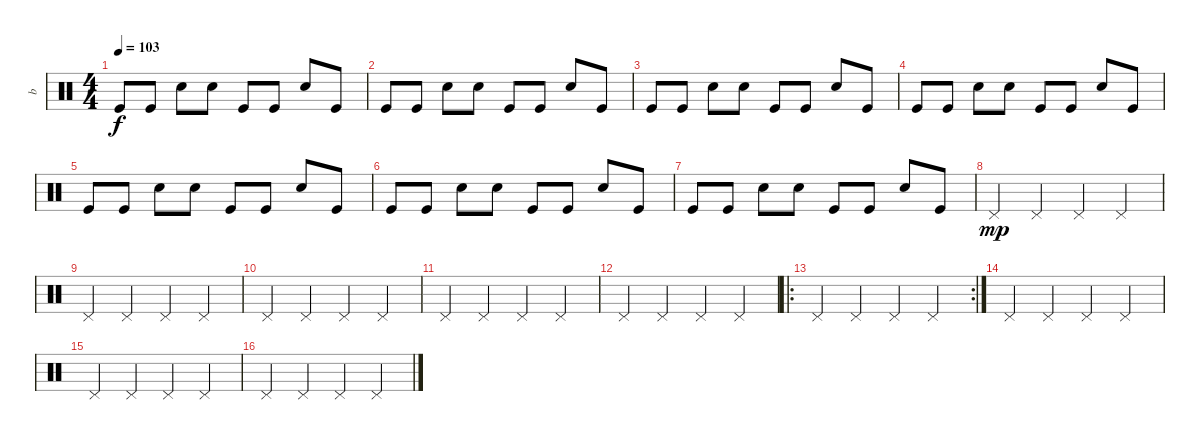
\track ("b" "b") {instrument percussion}
\staff {score}
\articulation defaults
\ts (4 4)
\tempo 103
\clef neutral
\ks c "Kick (hit)".8{dy f} "Kick (hit)".8 "Electric Snare (hit)".8 "Electric Snare (hit)".8 "Kick (hit)".8 "Kick (hit)".8 "Electric Snare (hit)".8 "Kick (hit)".8
|
"Kick (hit)".8 "Kick (hit)".8 "Electric Snare (hit)".8 "Electric Snare (hit)".8 "Kick (hit)".8 "Kick (hit)".8 "Electric Snare (hit)".8 "Kick (hit)".8 |
"Kick (hit)".8 "Kick (hit)".8 "Electric Snare (hit)".8 "Electric Snare (hit)".8 "Kick (hit)".8 "Kick (hit)".8 "Electric Snare (hit)".8 "Kick (hit)".8 |
"Kick (hit)".8 "Kick (hit)".8 "Electric Snare (hit)".8 "Electric Snare (hit)".8 "Kick (hit)".8 "Kick (hit)".8 "Electric Snare (hit)".8 "Kick (hit)".8 |
"Kick (hit)".8 "Kick (hit)".8 "Electric Snare (hit)".8 "Electric Snare (hit)".8 "Kick (hit)".8 "Kick (hit)".8 "Electric Snare (hit)".8 "Kick (hit)".8 |
"Kick (hit)".8 "Kick (hit)".8 "Electric Snare (hit)".8 "Electric Snare (hit)".8 "Kick (hit)".8 "Kick (hit)".8 "Electric Snare (hit)".8 "Kick (hit)".8 |
"Kick (hit)".8 "Kick (hit)".8 "Electric Snare (hit)".8 "Electric Snare (hit)".8 "Kick (hit)".8 "Kick (hit)".8 "Electric Snare (hit)".8 "Kick (hit)".8 |
"Pedal Hi-Hat (hit)".4{dy mp} "Pedal Hi-Hat (hit)".4 "Pedal Hi-Hat (hit)".4 "Pedal Hi-Hat (hit)".4 |
"Pedal Hi-Hat (hit)".4 "Pedal Hi-Hat (hit)".4 "Pedal Hi-Hat (hit)".4 "Pedal Hi-Hat (hit)".4 |
"Pedal Hi-Hat (hit)".4 "Pedal Hi-Hat (hit)".4 "Pedal Hi-Hat (hit)".4 "Pedal Hi-Hat (hit)".4 |
"Pedal Hi-Hat (hit)".4 "Pedal Hi-Hat (hit)".4 "Pedal Hi-Hat (hit)".4 "Pedal Hi-Hat (hit)".4 |
"Pedal Hi-Hat (hit)".4 "Pedal Hi-Hat (hit)".4 "Pedal Hi-Hat (hit)".4 "Pedal Hi-Hat (hit)".4 |
\ro
\rc 2 "Pedal Hi-Hat (hit)".4 "Pedal Hi-Hat (hit)".4 "Pedal Hi-Hat (hit)".4 "Pedal Hi-Hat (hit)".4
|
"Pedal Hi-Hat (hit)".4 "Pedal Hi-Hat (hit)".4 "Pedal Hi-Hat (hit)".4 "Pedal Hi-Hat (hit)".4 |
"Pedal Hi-Hat (hit)".4 "Pedal Hi-Hat (hit)".4 "Pedal Hi-Hat (hit)".4 "Pedal Hi-Hat (hit)".4 |
"Pedal Hi-Hat (hit)".4 "Pedal Hi-Hat (hit)".4 "Pedal Hi-Hat (hit)".4 "Pedal Hi-Hat (hit)".4
